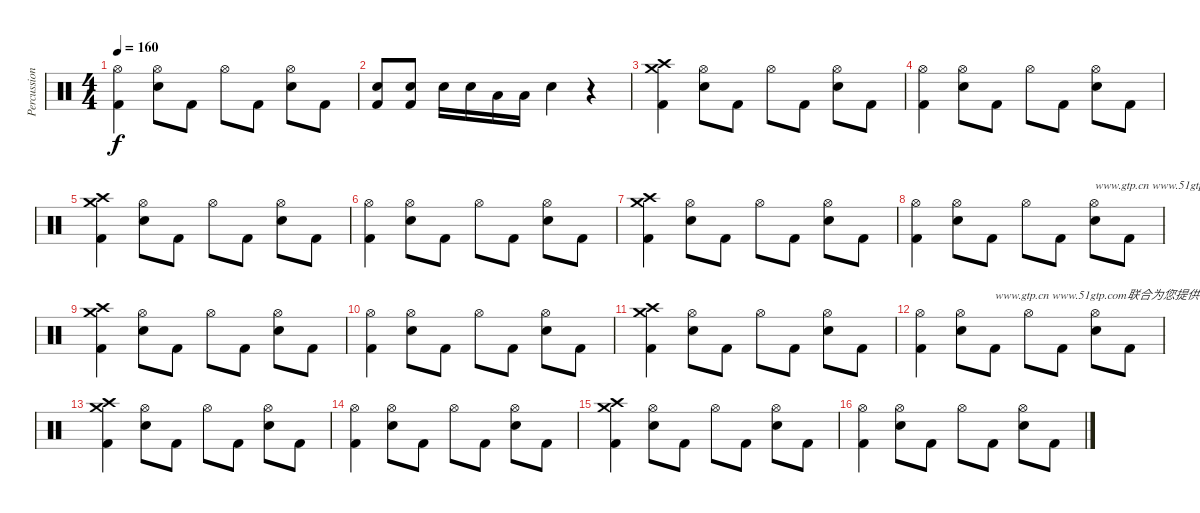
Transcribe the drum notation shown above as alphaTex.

\track ("Percussion" "Percussion") {instrument percussion}
\staff {score}
\articulation defaults
\ts (4 4)
\tempo 160
\clef neutral
\ks c
("Hi-Hat (open)" "Kick (hit) 2").4{dy f} ("Hi-Hat (open)" "Electric Snare (hit)").8 "Kick (hit) 2".8 "Hi-Hat (open)".8 "Kick (hit) 2".8 ("Hi-Hat (open)" "Electric Snare (hit)").8 "Kick (hit) 2".8 |
("Electric Snare (hit)" "Kick (hit) 2").8 ("Electric Snare (hit)" "Kick (hit) 2").8 "Electric Snare (hit)".16 "Electric Snare (hit)".16 "Low Tom (hit)".16 "Low Tom (hit)".16 "Electric Snare (hit)".4 r.4 |
("Crash medium (hit)" "Crash high (hit)" "Kick (hit) 2").4 ("Hi-Hat (open)" "Electric Snare (hit)").8 "Kick (hit) 2".8 "Hi-Hat (open)".8 "Kick (hit) 2".8 ("Hi-Hat (open)" "Electric Snare (hit)").8 "Kick (hit) 2".8 |
("Hi-Hat (open)" "Kick (hit) 2").4 ("Hi-Hat (open)" "Electric Snare (hit)").8 "Kick (hit) 2".8 "Hi-Hat (open)".8 "Kick (hit) 2".8 ("Hi-Hat (open)" "Electric Snare (hit)").8 "Kick (hit) 2".8 |
("Crash medium (hit)" "Crash high (hit)" "Kick (hit) 2").4 ("Hi-Hat (open)" "Electric Snare (hit)").8 "Kick (hit) 2".8 "Hi-Hat (open)".8 "Kick (hit) 2".8 ("Hi-Hat (open)" "Electric Snare (hit)").8 "Kick (hit) 2".8 |
("Hi-Hat (open)" "Kick (hit) 2").4 ("Hi-Hat (open)" "Electric Snare (hit)").8 "Kick (hit) 2".8 "Hi-Hat (open)".8 "Kick (hit) 2".8 ("Hi-Hat (open)" "Electric Snare (hit)").8 "Kick (hit) 2".8 |
("Crash medium (hit)" "Crash high (hit)" "Kick (hit) 2").4 ("Hi-Hat (open)" "Electric Snare (hit)").8 "Kick (hit) 2".8 "Hi-Hat (open)".8 "Kick (hit) 2".8 ("Hi-Hat (open)" "Electric Snare (hit)").8 "Kick (hit) 2".8 |
("Hi-Hat (open)" "Kick (hit) 2").4 ("Hi-Hat (open)" "Electric Snare (hit)").8 "Kick (hit) 2".8 "Hi-Hat (open)".8 "Kick (hit) 2".8 ("Hi-Hat (open)" "Electric Snare (hit)").8{txt "www.gtp.cn www.51gtp.com联合为您提供优秀的GTP!"} "Kick (hit) 2".8 |
("Crash medium (hit)" "Crash high (hit)" "Kick (hit) 2").4 ("Hi-Hat (open)" "Electric Snare (hit)").8 "Kick (hit) 2".8 "Hi-Hat (open)".8 "Kick (hit) 2".8 ("Hi-Hat (open)" "Electric Snare (hit)").8 "Kick (hit) 2".8 |
("Hi-Hat (open)" "Kick (hit) 2").4 ("Hi-Hat (open)" "Electric Snare (hit)").8 "Kick (hit) 2".8 "Hi-Hat (open)".8 "Kick (hit) 2".8 ("Hi-Hat (open)" "Electric Snare (hit)").8 "Kick (hit) 2".8 |
("Crash medium (hit)" "Crash high (hit)" "Kick (hit) 2").4 ("Hi-Hat (open)" "Electric Snare (hit)").8 "Kick (hit) 2".8 "Hi-Hat (open)".8 "Kick (hit) 2".8 ("Hi-Hat (open)" "Electric Snare (hit)").8 "Kick (hit) 2".8 |
("Hi-Hat (open)" "Kick (hit) 2").4 ("Hi-Hat (open)" "Electric Snare (hit)").8 "Kick (hit) 2".8{txt "www.gtp.cn www.51gtp.com联合为您提供优秀的GTP!"} "Hi-Hat (open)".8 "Kick (hit) 2".8 ("Hi-Hat (open)" "Electric Snare (hit)").8 "Kick (hit) 2".8 |
("Crash medium (hit)" "Crash high (hit)" "Kick (hit) 2").4 ("Hi-Hat (open)" "Electric Snare (hit)").8 "Kick (hit) 2".8 "Hi-Hat (open)".8 "Kick (hit) 2".8 ("Hi-Hat (open)" "Electric Snare (hit)").8 "Kick (hit) 2".8 |
("Hi-Hat (open)" "Kick (hit) 2").4 ("Hi-Hat (open)" "Electric Snare (hit)").8 "Kick (hit) 2".8 "Hi-Hat (open)".8 "Kick (hit) 2".8 ("Hi-Hat (open)" "Electric Snare (hit)").8 "Kick (hit) 2".8 |
("Crash medium (hit)" "Crash high (hit)" "Kick (hit) 2").4 ("Hi-Hat (open)" "Electric Snare (hit)").8 "Kick (hit) 2".8 "Hi-Hat (open)".8 "Kick (hit) 2".8 ("Hi-Hat (open)" "Electric Snare (hit)").8 "Kick (hit) 2".8 |
("Hi-Hat (open)" "Kick (hit) 2").4 ("Hi-Hat (open)" "Electric Snare (hit)").8 "Kick (hit) 2".8 "Hi-Hat (open)".8 "Kick (hit) 2".8 ("Hi-Hat (open)" "Electric Snare (hit)").8 "Kick (hit) 2".8
